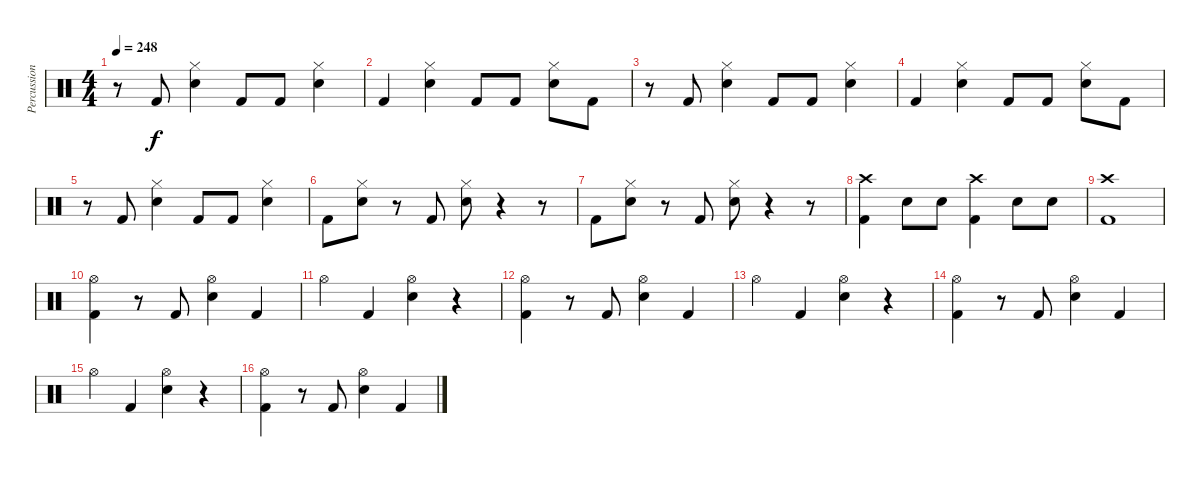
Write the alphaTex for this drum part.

\track ("Percussion" "Percussion") {instrument percussion}
\staff {score}
\articulation defaults
\ts (4 4)
\tempo 248
\clef neutral
\ks c
r.8{dy f} "Kick (hit) 2".8 ("Hi-Hat (closed)" "Snare (hit) 2").4 "Kick (hit) 2".8 "Kick (hit) 2".8 ("Hi-Hat (closed)" "Snare (hit) 2").4 |
"Kick (hit) 2".4 ("Hi-Hat (closed)" "Snare (hit) 2").4 "Kick (hit) 2".8 "Kick (hit) 2".8 ("Hi-Hat (closed)" "Snare (hit) 2").8 "Kick (hit) 2".8 |
r.8 "Kick (hit) 2".8 ("Hi-Hat (closed)" "Snare (hit) 2").4 "Kick (hit) 2".8 "Kick (hit) 2".8 ("Hi-Hat (closed)" "Snare (hit) 2").4 |
"Kick (hit) 2".4 ("Hi-Hat (closed)" "Snare (hit) 2").4 "Kick (hit) 2".8 "Kick (hit) 2".8 ("Hi-Hat (closed)" "Snare (hit) 2").8 "Kick (hit) 2".8 |
r.8 "Kick (hit) 2".8 ("Hi-Hat (closed)" "Snare (hit) 2").4 "Kick (hit) 2".8 "Kick (hit) 2".8 ("Hi-Hat (closed)" "Snare (hit) 2").4 |
"Kick (hit) 2".8 ("Hi-Hat (closed)" "Snare (hit) 2").8 r.8 "Kick (hit) 2".8 ("Hi-Hat (closed)" "Snare (hit) 2").8 r.4 r.8 |
"Kick (hit) 2".8 ("Hi-Hat (closed)" "Snare (hit) 2").8 r.8 "Kick (hit) 2".8 ("Hi-Hat (closed)" "Snare (hit) 2").8 r.4 r.8 |
("Crash high (hit)" "Kick (hit) 2").4 "Snare (hit) 2".8 "Snare (hit) 2".8 ("Crash high (hit)" "Kick (hit) 2").4 "Snare (hit) 2".8 "Snare (hit) 2".8 |
("Crash high (hit)" "Kick (hit) 2").1 |
("Hi-Hat (open)" "Kick (hit) 2").4 r.8 "Kick (hit) 2".8 ("Hi-Hat (open)" "Snare (hit) 2").4 "Kick (hit) 2".4 |
"Hi-Hat (open)".4 "Kick (hit) 2".4 ("Hi-Hat (open)" "Snare (hit) 2").4 r.4 |
("Hi-Hat (open)" "Kick (hit) 2").4 r.8 "Kick (hit) 2".8 ("Hi-Hat (open)" "Snare (hit) 2").4 "Kick (hit) 2".4 |
"Hi-Hat (open)".4 "Kick (hit) 2".4 ("Hi-Hat (open)" "Snare (hit) 2").4 r.4 |
("Hi-Hat (open)" "Kick (hit) 2").4 r.8 "Kick (hit) 2".8 ("Hi-Hat (open)" "Snare (hit) 2").4 "Kick (hit) 2".4 |
"Hi-Hat (open)".4 "Kick (hit) 2".4 ("Hi-Hat (open)" "Snare (hit) 2").4 r.4 |
("Hi-Hat (open)" "Kick (hit) 2").4 r.8 "Kick (hit) 2".8 ("Hi-Hat (open)" "Snare (hit) 2").4 "Kick (hit) 2".4
